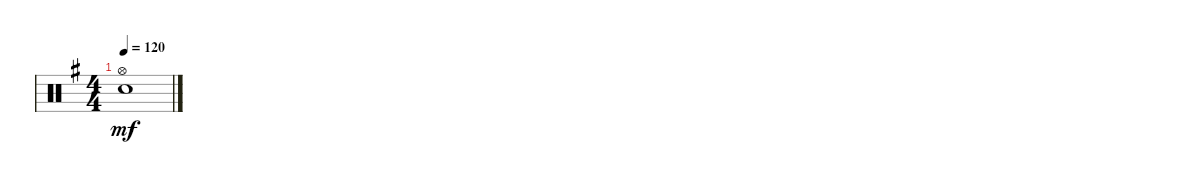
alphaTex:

\defaultSystemsLayout 4
\bracketExtendMode groupsimilarinstruments
\singleTrackTrackNamePolicy hidden
\multiTrackTrackNamePolicy hidden
\firstSystemTrackNameOrientation horizontal
\otherSystemsTrackNameOrientation horizontal
\track ("Maksim Udalov" "Drums") {instrument percussion}
\staff {score}
\articulation defaults
\ts (4 4)
\tempo 120
\clef neutral
\ks g
("Snare (hit) 2"{t} "Hi-Hat (open)"{t}).1{dy mf}
